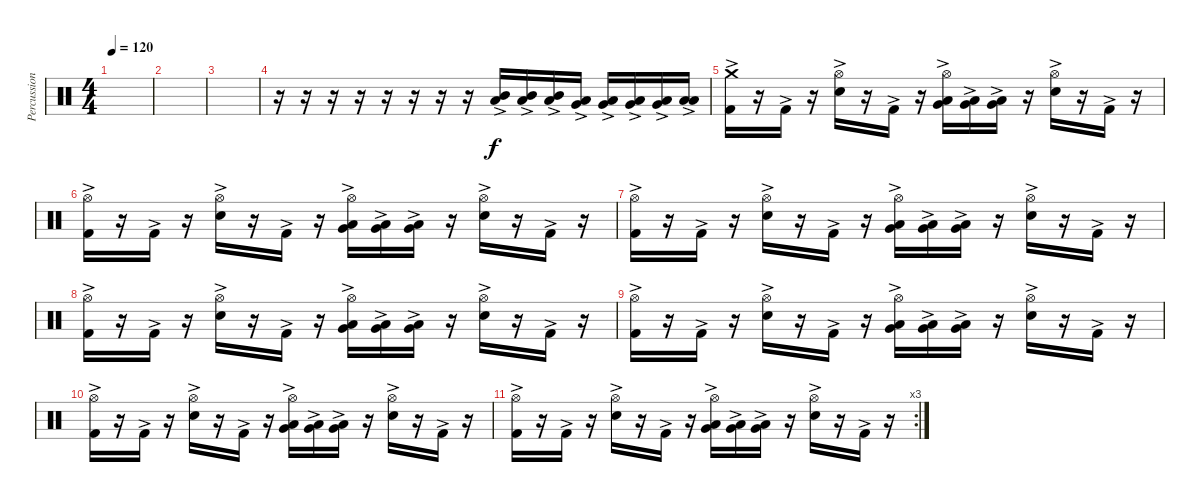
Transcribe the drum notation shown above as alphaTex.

\track ("Percussion" "Percussion") {instrument percussion}
\staff {score}
\articulation defaults
\ts (4 4)
\tempo 120
\clef neutral
\ks c
|
|
|
r.16 r.16 r.16 r.16 r.16 r.16 r.16 r.16 ("Low Tom (hit)"{ac} "Mid Tom (hit)"{ac}).16 ("Low Tom (hit)"{ac} "Mid Tom (hit)"{ac}).16 ("Low Tom (hit)"{ac} "Mid Tom (hit)"{ac}).16 ("Very Low Tom (hit)"{ac} "Low Tom (hit)"{ac}).16 ("Very Low Tom (hit)"{ac} "Low Tom (hit)"{ac}).16 ("Low Floor Tom (hit)"{ac} "Very Low Tom (hit)"{ac}).16 ("Low Floor Tom (hit)"{ac} "Very Low Tom (hit)"{ac}).16 ("Low Floor Tom (hit)"{ac} "Low Floor Tom (hit)"{ac}).16 |
("Crash medium (hit)"{ac} "Kick (hit) 2"{ac}).16 r.16 "Kick (hit) 2"{ac}.16 r.16 ("Hi-Hat (open)"{ac} "Snare (hit) 2"{ac}).16 r.16 "Kick (hit) 2"{ac}.16 r.16 ("Hi-Hat (open)"{ac} "Very Low Tom (hit)"{ac} "Low Tom (hit)"{ac}).16 ("Very Low Tom (hit)"{ac} "Low Tom (hit)"{ac}).16 ("Low Floor Tom (hit)"{ac} "Very Low Tom (hit)"{ac}).16 r.16 ("Hi-Hat (open)"{ac} "Snare (hit) 2"{ac}).16 r.16 "Kick (hit) 2"{ac}.16 r.16 |
("Hi-Hat (open)"{ac} "Kick (hit) 2"{ac}).16 r.16 "Kick (hit) 2"{ac}.16 r.16 ("Hi-Hat (open)"{ac} "Snare (hit) 2"{ac}).16 r.16 "Kick (hit) 2"{ac}.16 r.16 ("Hi-Hat (open)"{ac} "Very Low Tom (hit)"{ac} "Low Tom (hit)"{ac}).16 ("Very Low Tom (hit)"{ac} "Low Tom (hit)"{ac}).16 ("Low Floor Tom (hit)"{ac} "Very Low Tom (hit)"{ac}).16 r.16 ("Hi-Hat (open)"{ac} "Snare (hit) 2"{ac}).16 r.16 "Kick (hit) 2"{ac}.16 r.16 |
("Hi-Hat (open)"{ac} "Kick (hit) 2"{ac}).16 r.16 "Kick (hit) 2"{ac}.16 r.16 ("Hi-Hat (open)"{ac} "Snare (hit) 2"{ac}).16 r.16 "Kick (hit) 2"{ac}.16 r.16 ("Hi-Hat (open)"{ac} "Very Low Tom (hit)"{ac} "Low Tom (hit)"{ac}).16 ("Very Low Tom (hit)"{ac} "Low Tom (hit)"{ac}).16 ("Low Floor Tom (hit)"{ac} "Very Low Tom (hit)"{ac}).16 r.16 ("Hi-Hat (open)"{ac} "Snare (hit) 2"{ac}).16 r.16 "Kick (hit) 2"{ac}.16 r.16 |
("Hi-Hat (open)"{ac} "Kick (hit) 2"{ac}).16 r.16 "Kick (hit) 2"{ac}.16 r.16 ("Hi-Hat (open)"{ac} "Snare (hit) 2"{ac}).16 r.16 "Kick (hit) 2"{ac}.16 r.16 ("Hi-Hat (open)"{ac} "Very Low Tom (hit)"{ac} "Low Tom (hit)"{ac}).16 ("Very Low Tom (hit)"{ac} "Low Tom (hit)"{ac}).16 ("Low Floor Tom (hit)"{ac} "Very Low Tom (hit)"{ac}).16 r.16 ("Hi-Hat (open)"{ac} "Snare (hit) 2"{ac}).16 r.16 "Kick (hit) 2"{ac}.16 r.16 |
("Hi-Hat (open)"{ac} "Kick (hit) 2"{ac}).16 r.16 "Kick (hit) 2"{ac}.16 r.16 ("Hi-Hat (open)"{ac} "Snare (hit) 2"{ac}).16 r.16 "Kick (hit) 2"{ac}.16 r.16 ("Hi-Hat (open)"{ac} "Very Low Tom (hit)"{ac} "Low Tom (hit)"{ac}).16 ("Very Low Tom (hit)"{ac} "Low Tom (hit)"{ac}).16 ("Low Floor Tom (hit)"{ac} "Very Low Tom (hit)"{ac}).16 r.16 ("Hi-Hat (open)"{ac} "Snare (hit) 2"{ac}).16 r.16 "Kick (hit) 2"{ac}.16 r.16 |
("Hi-Hat (open)"{ac} "Kick (hit) 2"{ac}).16 r.16 "Kick (hit) 2"{ac}.16 r.16 ("Hi-Hat (open)"{ac} "Snare (hit) 2"{ac}).16 r.16 "Kick (hit) 2"{ac}.16 r.16 ("Hi-Hat (open)"{ac} "Very Low Tom (hit)"{ac} "Low Tom (hit)"{ac}).16 ("Very Low Tom (hit)"{ac} "Low Tom (hit)"{ac}).16 ("Low Floor Tom (hit)"{ac} "Very Low Tom (hit)"{ac}).16 r.16 ("Hi-Hat (open)"{ac} "Snare (hit) 2"{ac}).16 r.16 "Kick (hit) 2"{ac}.16 r.16 |
\rc 3
("Hi-Hat (open)"{ac} "Kick (hit) 2"{ac}).16 r.16 "Kick (hit) 2"{ac}.16 r.16 ("Hi-Hat (open)"{ac} "Snare (hit) 2"{ac}).16 r.16 "Kick (hit) 2"{ac}.16 r.16 ("Hi-Hat (open)"{ac} "Very Low Tom (hit)"{ac} "Low Tom (hit)"{ac}).16 ("Very Low Tom (hit)"{ac} "Low Tom (hit)"{ac}).16 ("Low Floor Tom (hit)"{ac} "Very Low Tom (hit)"{ac}).16 r.16 ("Hi-Hat (open)"{ac} "Snare (hit) 2"{ac}).16 r.16 "Kick (hit) 2"{ac}.16 r.16
